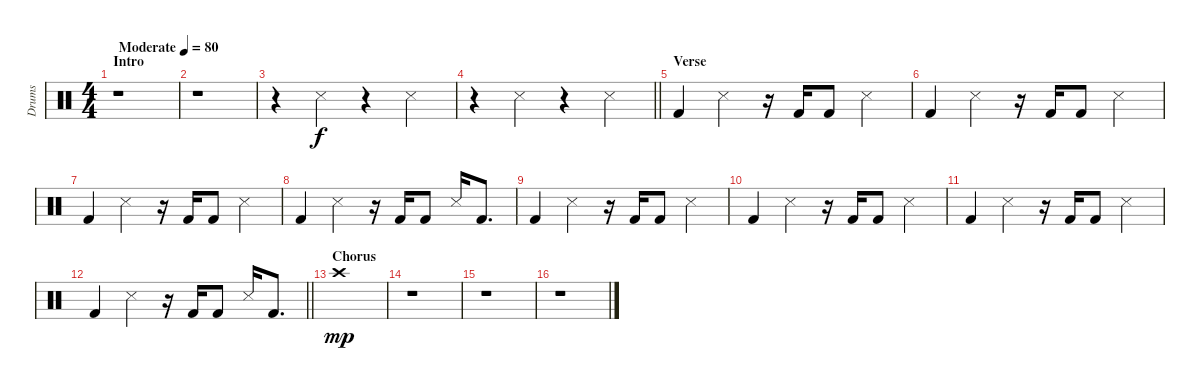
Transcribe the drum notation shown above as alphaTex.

\track ("Drums" "Drums") {instrument percussion}
\staff {score}
\articulation defaults
\ts (4 4)
\section ("" "Intro")
\tempo (80 "Moderate")
\clef neutral
\ks c
r.1{dy f} |
r.1 |
r.4 "Snare (side stick) 3".4 r.4 "Snare (side stick) 3".4 |
\barLineRight lightlight
r.4 "Snare (side stick) 3".4 r.4 "Snare (side stick) 3".4 |
\section ("" "Verse")
"Kick (hit) 2".4 "Snare (side stick) 3".4 r.16 "Kick (hit) 2".16 "Kick (hit) 2".8 "Snare (side stick) 3".4 |
"Kick (hit) 2".4 "Snare (side stick) 3".4 r.16 "Kick (hit) 2".16 "Kick (hit) 2".8 "Snare (side stick) 3".4 |
"Kick (hit) 2".4 "Snare (side stick) 3".4 r.16 "Kick (hit) 2".16 "Kick (hit) 2".8 "Snare (side stick) 3".4 |
"Kick (hit) 2".4 "Snare (side stick) 3".4 r.16 "Kick (hit) 2".16 "Kick (hit) 2".8 "Snare (side stick) 3".16 "Kick (hit) 2".8{d} |
"Kick (hit) 2".4 "Snare (side stick) 3".4 r.16 "Kick (hit) 2".16 "Kick (hit) 2".8 "Snare (side stick) 3".4 |
"Kick (hit) 2".4 "Snare (side stick) 3".4 r.16 "Kick (hit) 2".16 "Kick (hit) 2".8 "Snare (side stick) 3".4 |
"Kick (hit) 2".4 "Snare (side stick) 3".4 r.16 "Kick (hit) 2".16 "Kick (hit) 2".8 "Snare (side stick) 3".4 |
\barLineRight lightlight "Kick (hit) 2".4 "Snare (side stick) 3".4
r.16 "Kick (hit) 2".16 "Kick (hit) 2".8 "Snare (side stick) 3".16 "Kick (hit) 2".8{d} |
\section ("" "Chorus")
"Crash high (hit)".1{dy mp} |
r.1 |
r.1 |
r.1
